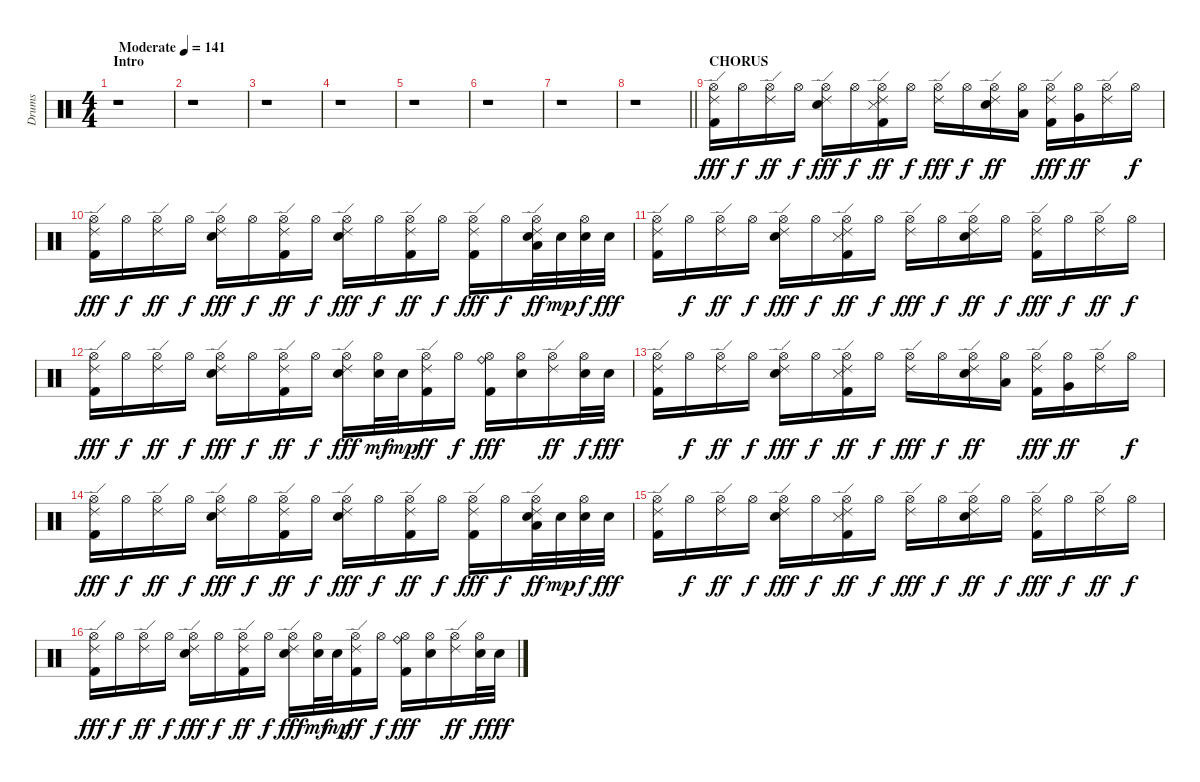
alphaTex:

\track ("Drums" "Drums") {instrument percussion}
\staff {score}
\articulation defaults
\ts (4 4)
\section ("" "Intro")
\tempo (141 "Moderate")
\clef neutral
\ks c
r.1{dy fff} |
r.1 |
r.1 |
r.1 |
r.1 |
r.1 |
r.1 |
\barLineRight lightlight
r.1 |
\section ("" "CHORUS")
("Kick (hit) 2" "Hi-Hat (open)" "Ride (edge) 2").16 "Hi-Hat (open)".16{dy f} ("Hi-Hat (open)" "Ride (edge) 2").16{dy ff} "Hi-Hat (open)".16{dy f} ("Snare (hit) 2" "Hi-Hat (open)" "Ride (edge) 2").16{dy fff} "Hi-Hat (open)".16{dy f} ("Kick (hit) 2" "Snare (side stick) 3" "Hi-Hat (open)" "Ride (edge) 2").16{dy ff} "Hi-Hat (open)".16{dy f} ("Hi-Hat (open)" "Ride (edge) 2").16{dy fff} "Hi-Hat (open)".16{dy f} ("Snare (hit) 2" "Hi-Hat (open)" "Ride (edge) 2").16{dy ff} ("Hi-Hat (open)" "Low Floor Tom (hit)").16 ("Kick (hit) 2" "Hi-Hat (open)" "Ride (edge) 2").16{dy fff} ("Hi-Hat (open)" "Very Low Tom (hit)").16{dy ff} ("Hi-Hat (open)" "Ride (edge) 2").16 "Hi-Hat (open)".16{dy f} |
("Kick (hit) 2" "Hi-Hat (open)" "Ride (edge) 2").16{dy fff} "Hi-Hat (open)".16{dy f} ("Hi-Hat (open)" "Ride (edge) 2").16{dy ff} "Hi-Hat (open)".16{dy f} ("Snare (hit) 2" "Hi-Hat (open)" "Ride (edge) 2").16{dy fff} "Hi-Hat (open)".16{dy f} ("Kick (hit) 2" "Hi-Hat (open)" "Ride (edge) 2").16{dy ff} "Hi-Hat (open)".16{dy f} ("Snare (hit) 2" "Hi-Hat (open)" "Ride (edge) 2").16{dy fff} "Hi-Hat (open)".16{dy f} ("Kick (hit) 2" "Hi-Hat (open)" "Ride (edge) 2").16{dy ff} "Hi-Hat (open)".16{dy f} ("Kick (hit) 2" "Hi-Hat (open)" "Ride (edge) 2").16{dy fff} "Hi-Hat (open)".16{dy f} ("Snare (hit) 2" "Hi-Hat (open)" "Ride (edge) 2" "Low Tom (hit)").32{dy ff} "Snare (hit) 2".32{dy mp} ("Snare (hit) 2" "Hi-Hat (open)").32{dy f} "Snare (hit) 2".32{dy fff} |
("Kick (hit) 2" "Hi-Hat (open)" "Ride (edge) 2").16 "Hi-Hat (open)".16{dy f} ("Hi-Hat (open)" "Ride (edge) 2").16{dy ff} "Hi-Hat (open)".16{dy f} ("Snare (hit) 2" "Hi-Hat (open)" "Ride (edge) 2").16{dy fff} "Hi-Hat (open)".16{dy f} ("Kick (hit) 2" "Snare (side stick) 3" "Hi-Hat (open)" "Ride (edge) 2").16{dy ff} "Hi-Hat (open)".16{dy f} ("Hi-Hat (open)" "Ride (edge) 2").16{dy fff} "Hi-Hat (open)".16{dy f} ("Snare (hit) 2" "Hi-Hat (open)" "Ride (edge) 2").16{dy ff} "Hi-Hat (open)".16{dy f} ("Kick (hit) 2" "Hi-Hat (open)" "Ride (edge) 2").16{dy fff} "Hi-Hat (open)".16{dy f} ("Hi-Hat (open)" "Ride (edge) 2").16{dy ff} "Hi-Hat (open)".16{dy f} |
("Kick (hit) 2" "Hi-Hat (open)" "Ride (edge) 2").16{dy fff} "Hi-Hat (open)".16{dy f} ("Hi-Hat (open)" "Ride (edge) 2").16{dy ff} "Hi-Hat (open)".16{dy f} ("Snare (hit) 2" "Hi-Hat (open)" "Ride (edge) 2").16{dy fff} "Hi-Hat (open)".16{dy f} ("Kick (hit) 2" "Hi-Hat (open)" "Ride (edge) 2").16{dy ff} "Hi-Hat (open)".16{dy f} ("Snare (hit) 2" "Hi-Hat (open)" "Ride (edge) 2").16{dy fff} ("Snare (hit) 2" "Hi-Hat (open)").32{dy mf} "Snare (hit) 2".32{dy mp} ("Kick (hit) 2" "Hi-Hat (open)" "Ride (edge) 2").16{dy ff} "Hi-Hat (open)".16{dy f} ("Kick (hit) 2" "Hi-Hat (open)" "Ride (bell)").16{dy fff} ("Snare (hit) 2" "Hi-Hat (open)").16 ("Hi-Hat (open)" "Ride (edge) 2").16{dy ff} ("Snare (hit) 2" "Hi-Hat (open)").32{dy f} "Snare (hit) 2".32{dy fff} |
("Kick (hit) 2" "Hi-Hat (open)" "Ride (edge) 2").16 "Hi-Hat (open)".16{dy f} ("Hi-Hat (open)" "Ride (edge) 2").16{dy ff} "Hi-Hat (open)".16{dy f} ("Snare (hit) 2" "Hi-Hat (open)" "Ride (edge) 2").16{dy fff} "Hi-Hat (open)".16{dy f} ("Kick (hit) 2" "Snare (side stick) 3" "Hi-Hat (open)" "Ride (edge) 2").16{dy ff} "Hi-Hat (open)".16{dy f} ("Hi-Hat (open)" "Ride (edge) 2").16{dy fff} "Hi-Hat (open)".16{dy f} ("Snare (hit) 2" "Hi-Hat (open)" "Ride (edge) 2").16{dy ff} ("Hi-Hat (open)" "Low Floor Tom (hit)").16 ("Kick (hit) 2" "Hi-Hat (open)" "Ride (edge) 2").16{dy fff} ("Hi-Hat (open)" "Very Low Tom (hit)").16{dy ff} ("Hi-Hat (open)" "Ride (edge) 2").16 "Hi-Hat (open)".16{dy f} |
("Kick (hit) 2" "Hi-Hat (open)" "Ride (edge) 2").16{dy fff} "Hi-Hat (open)".16{dy f} ("Hi-Hat (open)" "Ride (edge) 2").16{dy ff} "Hi-Hat (open)".16{dy f} ("Snare (hit) 2" "Hi-Hat (open)" "Ride (edge) 2").16{dy fff} "Hi-Hat (open)".16{dy f} ("Kick (hit) 2" "Hi-Hat (open)" "Ride (edge) 2").16{dy ff} "Hi-Hat (open)".16{dy f} ("Snare (hit) 2" "Hi-Hat (open)" "Ride (edge) 2").16{dy fff} "Hi-Hat (open)".16{dy f} ("Kick (hit) 2" "Hi-Hat (open)" "Ride (edge) 2").16{dy ff} "Hi-Hat (open)".16{dy f} ("Kick (hit) 2" "Hi-Hat (open)" "Ride (edge) 2").16{dy fff} "Hi-Hat (open)".16{dy f} ("Snare (hit) 2" "Hi-Hat (open)" "Ride (edge) 2" "Low Tom (hit)").32{dy ff} "Snare (hit) 2".32{dy mp} ("Snare (hit) 2" "Hi-Hat (open)").32{dy f} "Snare (hit) 2".32{dy fff} |
("Kick (hit) 2" "Hi-Hat (open)" "Ride (edge) 2").16 "Hi-Hat (open)".16{dy f} ("Hi-Hat (open)" "Ride (edge) 2").16{dy ff} "Hi-Hat (open)".16{dy f} ("Snare (hit) 2" "Hi-Hat (open)" "Ride (edge) 2").16{dy fff} "Hi-Hat (open)".16{dy f} ("Kick (hit) 2" "Snare (side stick) 3" "Hi-Hat (open)" "Ride (edge) 2").16{dy ff} "Hi-Hat (open)".16{dy f} ("Hi-Hat (open)" "Ride (edge) 2").16{dy fff} "Hi-Hat (open)".16{dy f} ("Snare (hit) 2" "Hi-Hat (open)" "Ride (edge) 2").16{dy ff} "Hi-Hat (open)".16{dy f} ("Kick (hit) 2" "Hi-Hat (open)" "Ride (edge) 2").16{dy fff} "Hi-Hat (open)".16{dy f} ("Hi-Hat (open)" "Ride (edge) 2").16{dy ff} "Hi-Hat (open)".16{dy f} |
("Kick (hit) 2" "Hi-Hat (open)" "Ride (edge) 2").16{dy fff} "Hi-Hat (open)".16{dy f} ("Hi-Hat (open)" "Ride (edge) 2").16{dy ff} "Hi-Hat (open)".16{dy f} ("Snare (hit) 2" "Hi-Hat (open)" "Ride (edge) 2").16{dy fff} "Hi-Hat (open)".16{dy f} ("Kick (hit) 2" "Hi-Hat (open)" "Ride (edge) 2").16{dy ff} "Hi-Hat (open)".16{dy f} ("Snare (hit) 2" "Hi-Hat (open)" "Ride (edge) 2").16{dy fff} ("Snare (hit) 2" "Hi-Hat (open)").32{dy mf} "Snare (hit) 2".32{dy mp} ("Kick (hit) 2" "Hi-Hat (open)" "Ride (edge) 2").16{dy ff} "Hi-Hat (open)".16{dy f} ("Kick (hit) 2" "Hi-Hat (open)" "Ride (bell)").16{dy fff} ("Snare (hit) 2" "Hi-Hat (open)").16 ("Hi-Hat (open)" "Ride (edge) 2").16{dy ff} ("Snare (hit) 2" "Hi-Hat (open)").32{dy f} "Snare (hit) 2".32{dy fff}
